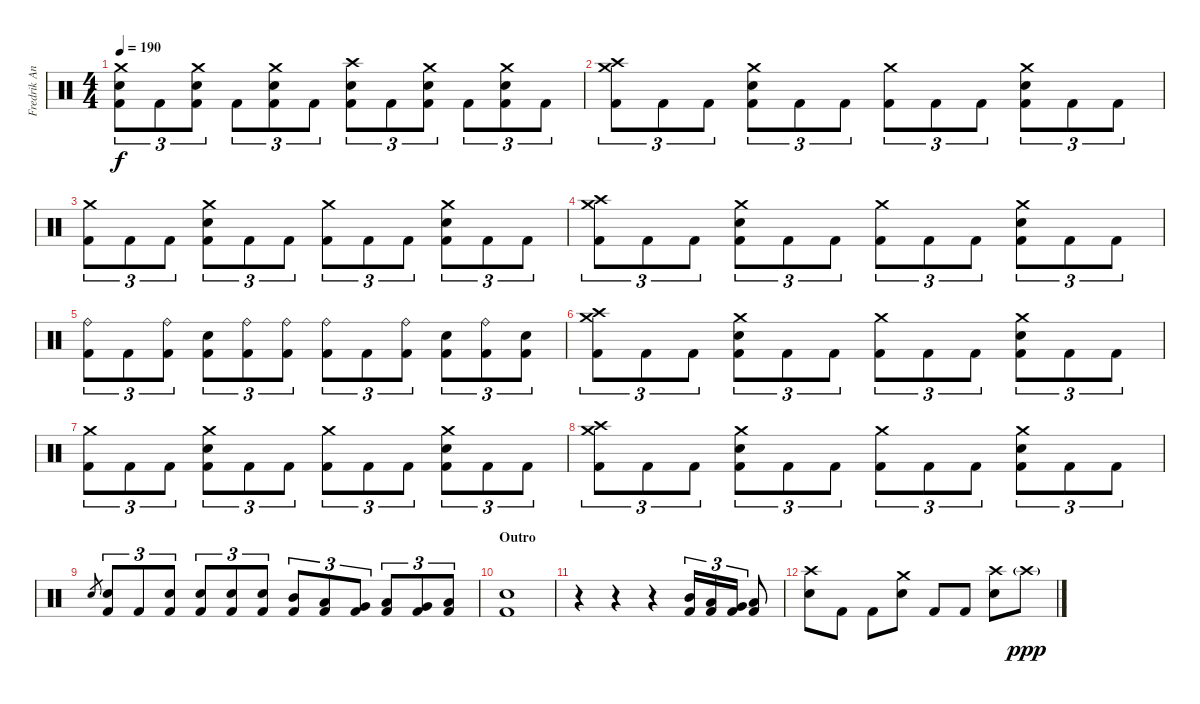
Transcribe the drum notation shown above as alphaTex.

\track ("Fredrik Andersson" "Fredrik An") {instrument percussion}
\staff {score}
\articulation defaults
\ts (4 4)
\tempo 190
\clef neutral
\ks c
("Crash medium (hit)" "Electric Snare (hit)" "Kick (hit) 2").8{tu (3 2) dy f} "Kick (hit) 2".8{tu (3 2)} ("Crash medium (hit)" "Electric Snare (hit)" "Kick (hit) 2").8{tu (3 2)} "Kick (hit) 2".8{tu (3 2)} ("Crash medium (hit)" "Electric Snare (hit)" "Kick (hit) 2").8{tu (3 2)} "Kick (hit) 2".8{tu (3 2)} ("Crash high (hit)" "Electric Snare (hit)" "Kick (hit) 2").8{tu (3 2)} "Kick (hit) 2".8{tu (3 2)} ("Crash medium (hit)" "Electric Snare (hit)" "Kick (hit) 2").8{tu (3 2)} "Kick (hit) 2".8{tu (3 2)} ("Crash medium (hit)" "Electric Snare (hit)" "Kick (hit) 2").8{tu (3 2)} "Kick (hit) 2".8{tu (3 2)} |
("Crash medium (hit)" "Crash high (hit)" "Kick (hit) 2").8{tu (3 2)} "Kick (hit) 2".8{tu (3 2)} "Kick (hit) 2".8{tu (3 2)} ("Crash medium (hit)" "Electric Snare (hit)" "Kick (hit) 2").8{tu (3 2)} "Kick (hit) 2".8{tu (3 2)} "Kick (hit) 2".8{tu (3 2)} ("Crash medium (hit)" "Kick (hit) 2").8{tu (3 2)} "Kick (hit) 2".8{tu (3 2)} "Kick (hit) 2".8{tu (3 2)} ("Crash medium (hit)" "Electric Snare (hit)" "Kick (hit) 2").8{tu (3 2)} "Kick (hit) 2".8{tu (3 2)} "Kick (hit) 2".8{tu (3 2)} |
("Crash medium (hit)" "Kick (hit) 2").8{tu (3 2)} "Kick (hit) 2".8{tu (3 2)} "Kick (hit) 2".8{tu (3 2)} ("Crash medium (hit)" "Electric Snare (hit)" "Kick (hit) 2").8{tu (3 2)} "Kick (hit) 2".8{tu (3 2)} "Kick (hit) 2".8{tu (3 2)} ("Crash medium (hit)" "Kick (hit) 2").8{tu (3 2)} "Kick (hit) 2".8{tu (3 2)} "Kick (hit) 2".8{tu (3 2)} ("Crash medium (hit)" "Electric Snare (hit)" "Kick (hit) 2").8{tu (3 2)} "Kick (hit) 2".8{tu (3 2)} "Kick (hit) 2".8{tu (3 2)} |
("Crash medium (hit)" "Crash high (hit)" "Kick (hit) 2").8{tu (3 2)} "Kick (hit) 2".8{tu (3 2)} "Kick (hit) 2".8{tu (3 2)} ("Crash medium (hit)" "Electric Snare (hit)" "Kick (hit) 2").8{tu (3 2)} "Kick (hit) 2".8{tu (3 2)} "Kick (hit) 2".8{tu (3 2)} ("Crash medium (hit)" "Kick (hit) 2").8{tu (3 2)} "Kick (hit) 2".8{tu (3 2)} "Kick (hit) 2".8{tu (3 2)} ("Crash medium (hit)" "Electric Snare (hit)" "Kick (hit) 2").8{tu (3 2)} "Kick (hit) 2".8{tu (3 2)} "Kick (hit) 2".8{tu (3 2)} |
("Ride (bell)" "Kick (hit) 2").8{tu (3 2)} "Kick (hit) 2".8{tu (3 2)} ("Ride (bell)" "Kick (hit) 2").8{tu (3 2)} ("Electric Snare (hit)" "Kick (hit) 2").8{tu (3 2)} ("Ride (bell)" "Kick (hit) 2").8{tu (3 2)} ("Ride (bell)" "Kick (hit) 2").8{tu (3 2)} ("Ride (bell)" "Kick (hit) 2").8{tu (3 2)} "Kick (hit) 2".8{tu (3 2)} ("Ride (bell)" "Kick (hit) 2").8{tu (3 2)} ("Electric Snare (hit)" "Kick (hit) 2").8{tu (3 2)} ("Ride (bell)" "Kick (hit) 2").8{tu (3 2)} ("Electric Snare (hit)" "Kick (hit) 2").8{tu (3 2)} |
("Crash medium (hit)" "Crash high (hit)" "Kick (hit) 2").8{tu (3 2)} "Kick (hit) 2".8{tu (3 2)} "Kick (hit) 2".8{tu (3 2)} ("Crash medium (hit)" "Electric Snare (hit)" "Kick (hit) 2").8{tu (3 2)} "Kick (hit) 2".8{tu (3 2)} "Kick (hit) 2".8{tu (3 2)} ("Crash medium (hit)" "Kick (hit) 2").8{tu (3 2)} "Kick (hit) 2".8{tu (3 2)} "Kick (hit) 2".8{tu (3 2)} ("Crash medium (hit)" "Electric Snare (hit)" "Kick (hit) 2").8{tu (3 2)} "Kick (hit) 2".8{tu (3 2)} "Kick (hit) 2".8{tu (3 2)} |
("Crash medium (hit)" "Kick (hit) 2").8{tu (3 2)} "Kick (hit) 2".8{tu (3 2)} "Kick (hit) 2".8{tu (3 2)} ("Crash medium (hit)" "Electric Snare (hit)" "Kick (hit) 2").8{tu (3 2)} "Kick (hit) 2".8{tu (3 2)} "Kick (hit) 2".8{tu (3 2)} ("Crash medium (hit)" "Kick (hit) 2").8{tu (3 2)} "Kick (hit) 2".8{tu (3 2)} "Kick (hit) 2".8{tu (3 2)} ("Crash medium (hit)" "Electric Snare (hit)" "Kick (hit) 2").8{tu (3 2)} "Kick (hit) 2".8{tu (3 2)} "Kick (hit) 2".8{tu (3 2)} |
("Crash medium (hit)" "Crash high (hit)" "Kick (hit) 2").8{tu (3 2)} "Kick (hit) 2".8{tu (3 2)} "Kick (hit) 2".8{tu (3 2)} ("Crash medium (hit)" "Electric Snare (hit)" "Kick (hit) 2").8{tu (3 2)} "Kick (hit) 2".8{tu (3 2)} "Kick (hit) 2".8{tu (3 2)} ("Crash medium (hit)" "Kick (hit) 2").8{tu (3 2)} "Kick (hit) 2".8{tu (3 2)} "Kick (hit) 2".8{tu (3 2)} ("Crash medium (hit)" "Electric Snare (hit)" "Kick (hit) 2").8{tu (3 2)} "Kick (hit) 2".8{tu (3 2)} "Kick (hit) 2".8{tu (3 2)} |
"Electric Snare (hit)".8{gr} ("Electric Snare (hit)" "Kick (hit) 2").8{tu (3 2)} "Kick (hit) 2".8{tu (3 2)} ("Electric Snare (hit)" "Kick (hit) 2").8{tu (3 2)} ("Electric Snare (hit)" "Kick (hit) 2").8{tu (3 2)} ("Electric Snare (hit)" "Kick (hit) 2").8{tu (3 2)} ("Electric Snare (hit)" "Kick (hit) 2").8{tu (3 2)} ("Mid Tom (hit)" "Kick (hit) 2").8{tu (3 2)} ("Low Tom (hit)" "Kick (hit) 2").8{tu (3 2)} ("Very Low Tom (hit)" "Kick (hit) 2").8{tu (3 2)} ("Low Tom (hit)" "Kick (hit) 2").8{tu (3 2)} ("Very Low Tom (hit)" "Kick (hit) 2").8{tu (3 2)} ("Low Floor Tom (hit)" "Kick (hit) 2").8{tu (3 2)} |
\section ("" "Outro")
("Electric Snare (hit)" "Kick (hit) 2").1 |
r.4 r.4 r.4 ("Mid Tom (hit)" "Kick (hit) 2").16{tu (3 2)} ("Low Tom (hit)" "Kick (hit) 2").16{tu (3 2)} ("Very Low Tom (hit)" "Kick (hit) 2").16{tu (3 2)} ("Low Floor Tom (hit)" "Kick (hit) 2").8 |
("Crash high (hit)" "Electric Snare (hit)").8 "Kick (hit) 2".8 "Kick (hit) 2".8 ("Crash medium (hit)" "Electric Snare (hit)").8 "Kick (hit) 2".8 "Kick (hit) 2".8 ("Crash high (hit)" "Electric Snare (hit)").8 "Crash high (hit)"{g}.8{dy ppp}
